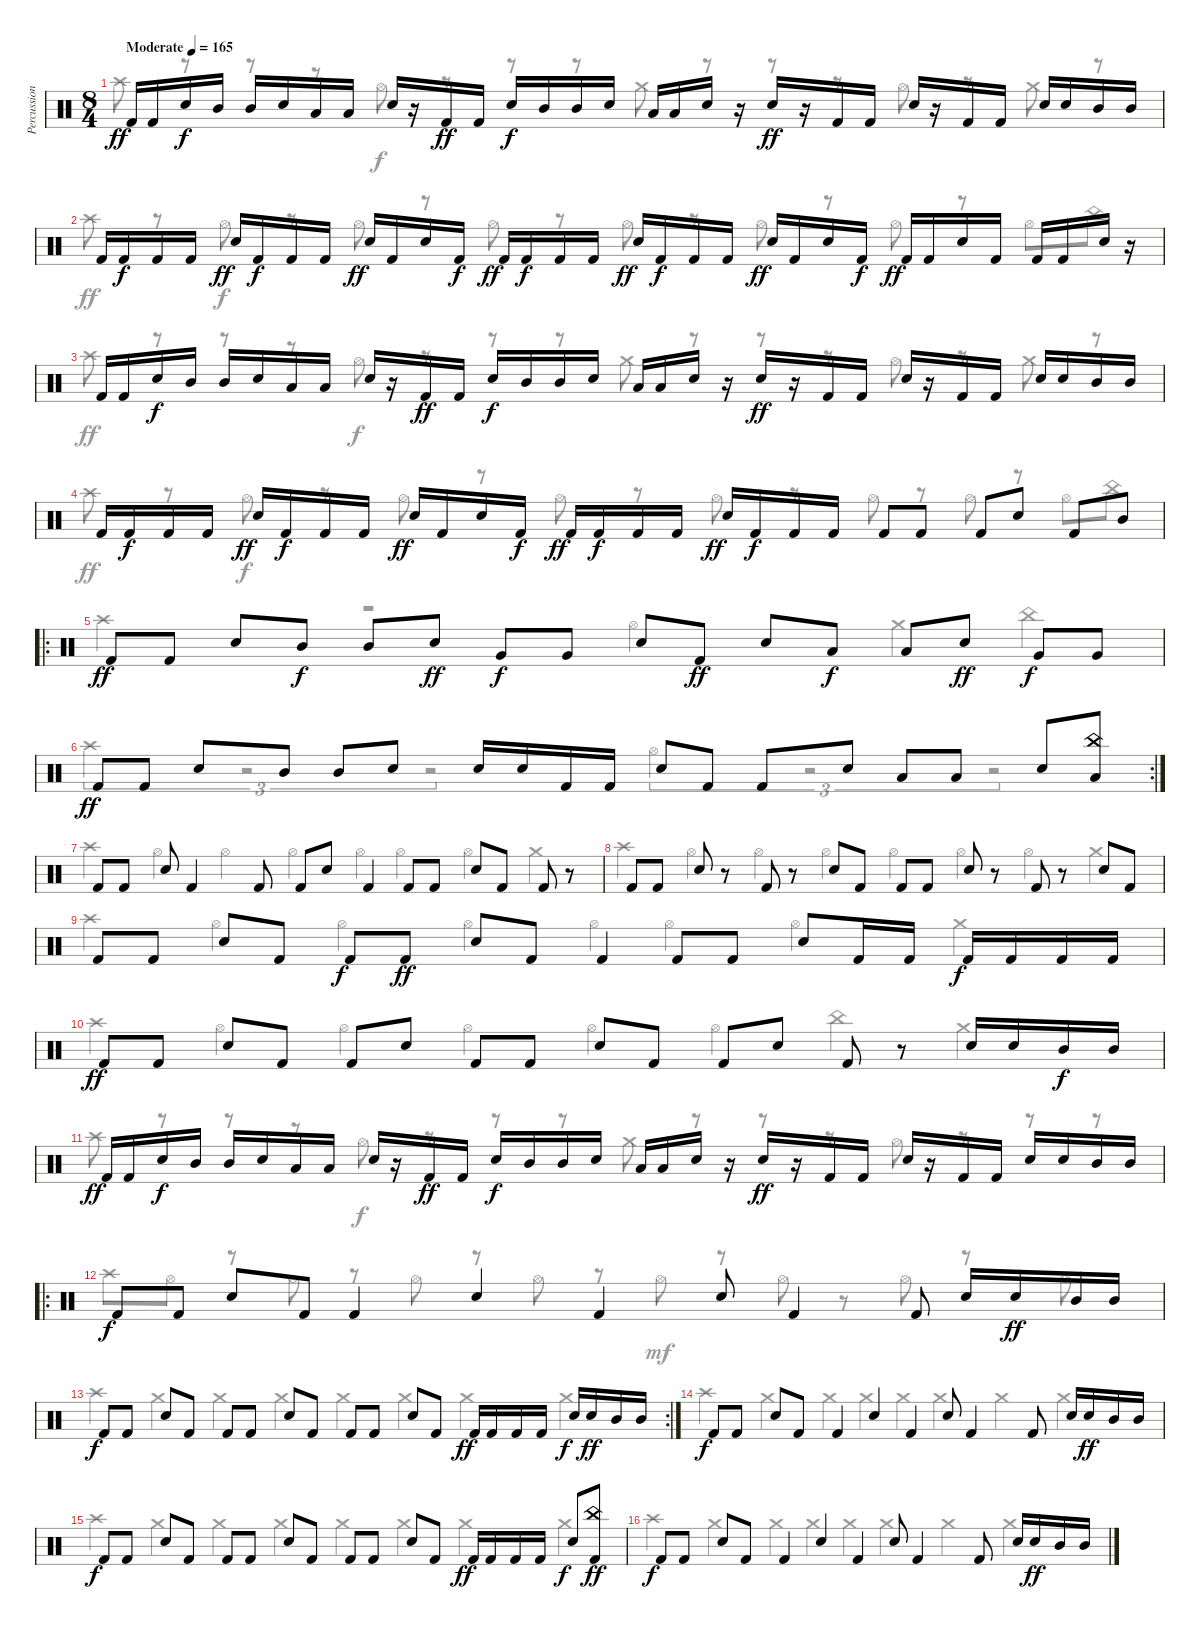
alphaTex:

\track ("Percussion" "Percussion") {instrument percussion}
\staff {score}
\articulation defaults
\voice
\ts (8 4)
\tempo (165 "Moderate")
\clef neutral
\ks c "Kick (hit) 2".16{dy ff} "Kick (hit) 2".16 "Electric Snare (hit)".16{dy f} "Mid Tom (hit)".16 "Mid Tom (hit)".16 "Electric Snare (hit)".16 "Low Tom (hit)".16 "Low Tom (hit)".16 "Electric Snare (hit)".16
r.16 "Kick (hit) 2".16{dy ff} "Kick (hit) 2".16 "Electric Snare (hit)".16{dy f} "Mid Tom (hit)".16 "Mid Tom (hit)".16 "Electric Snare (hit)".16 "Low Tom (hit)".16 "Low Tom (hit)".16 "Electric Snare (hit)".16 r.16 "Electric Snare (hit)".16{dy ff} r.16 "Kick (hit) 2".16 "Kick (hit) 2".16 "Electric Snare (hit)".16 r.16 "Kick (hit) 2".16 "Kick (hit) 2".16 "Electric Snare (hit)".16 "Electric Snare (hit)".16 "Mid Tom (hit)".16 "Mid Tom (hit)".16 |
"Kick (hit) 2".16 "Kick (hit) 2".16{dy f} "Kick (hit) 2".16 "Kick (hit) 2".16 "Electric Snare (hit)".16{dy ff} "Kick (hit) 2".16{dy f} "Kick (hit) 2".16 "Kick (hit) 2".16 "Electric Snare (hit)".16{dy ff} "Kick (hit) 2".16 "Electric Snare (hit)".16 "Kick (hit) 2".16{dy f} "Kick (hit) 2".16{dy ff} "Kick (hit) 2".16{dy f} "Kick (hit) 2".16 "Kick (hit) 2".16 "Electric Snare (hit)".16{dy ff} "Kick (hit) 2".16{dy f} "Kick (hit) 2".16 "Kick (hit) 2".16 "Electric Snare (hit)".16{dy ff} "Kick (hit) 2".16 "Electric Snare (hit)".16 "Kick (hit) 2".16{dy f} "Kick (hit) 2".16{dy ff} "Kick (hit) 2".16 "Electric Snare (hit)".16 "Kick (hit) 2".16 "Kick (hit) 2".16 "Kick (hit) 2".16 "Electric Snare (hit)".16 r.16 |
"Kick (hit) 2".16 "Kick (hit) 2".16 "Electric Snare (hit)".16{dy f} "Mid Tom (hit)".16 "Mid Tom (hit)".16 "Electric Snare (hit)".16 "Low Tom (hit)".16 "Low Tom (hit)".16 "Electric Snare (hit)".16 r.16 "Kick (hit) 2".16{dy ff} "Kick (hit) 2".16 "Electric Snare (hit)".16{dy f} "Mid Tom (hit)".16 "Mid Tom (hit)".16 "Electric Snare (hit)".16 "Low Tom (hit)".16 "Low Tom (hit)".16 "Electric Snare (hit)".16 r.16 "Electric Snare (hit)".16{dy ff} r.16 "Kick (hit) 2".16 "Kick (hit) 2".16 "Electric Snare (hit)".16 r.16 "Kick (hit) 2".16 "Kick (hit) 2".16 "Electric Snare (hit)".16 "Electric Snare (hit)".16 "Mid Tom (hit)".16 "Mid Tom (hit)".16 |
"Kick (hit) 2".16 "Kick (hit) 2".16{dy f} "Kick (hit) 2".16 "Kick (hit) 2".16 "Electric Snare (hit)".16{dy ff} "Kick (hit) 2".16{dy f} "Kick (hit) 2".16 "Kick (hit) 2".16 "Electric Snare (hit)".16{dy ff} "Kick (hit) 2".16 "Electric Snare (hit)".16 "Kick (hit) 2".16{dy f} "Kick (hit) 2".16{dy ff} "Kick (hit) 2".16{dy f} "Kick (hit) 2".16 "Kick (hit) 2".16 "Electric Snare (hit)".16{dy ff} "Kick (hit) 2".16{dy f} "Kick (hit) 2".16 "Kick (hit) 2".16 "Kick (hit) 2".8 "Kick (hit) 2".8 "Kick (hit) 2".8 "Electric Snare (hit)".8 "Kick (hit) 2".8 "Mid Tom (hit)".8 |
\ro "Kick (hit) 2".8{dy ff} "Kick (hit) 2".8 "Electric Snare (hit)".8 "Mid Tom (hit)".8{dy f} "Mid Tom (hit)".8 "Electric Snare (hit)".8{dy ff} "Very Low Tom (hit)".8{dy f} "Very Low Tom (hit)".8 "Electric Snare (hit)".8 "Kick (hit) 2".8{dy ff} "Electric Snare (hit)".8 "Low Tom (hit)".8{dy f} "Low Tom (hit)".8 "Electric Snare (hit)".8{dy ff} "Very Low Tom (hit)".8{dy f} "Very Low Tom (hit)".8
|
\rc 2 "Kick (hit) 2".8{dy ff} "Kick (hit) 2".8 "Electric Snare (hit)".8 "Mid Tom (hit)".8 "Mid Tom (hit)".8 "Electric Snare (hit)".8 "Electric Snare (hit)".16 "Electric Snare (hit)".16 "Kick (hit) 2".16 "Kick (hit) 2".16 "Electric Snare (hit)".8 "Kick (hit) 2".8 "Kick (hit) 2".8 "Electric Snare (hit)".8 "Low Floor Tom (hit)".8 "Low Floor Tom (hit)".8 "Electric Snare (hit)".8
("China (hit)" "Low Tom (hit)").8 |
"Kick (hit) 2".8 "Kick (hit) 2".8 "Electric Snare (hit)".8 "Kick (hit) 2".4 "Kick (hit) 2".8 "Kick (hit) 2".8 "Electric Snare (hit)".8 "Kick (hit) 2".4 "Kick (hit) 2".8 "Kick (hit) 2".8 "Electric Snare (hit)".8 "Kick (hit) 2".8 "Kick (hit) 2".8 r.8 |
"Kick (hit) 2".8 "Kick (hit) 2".8 "Electric Snare (hit)".8 r.8 "Kick (hit) 2".8 r.8 "Electric Snare (hit)".8 "Kick (hit) 2".8 "Kick (hit) 2".8 "Kick (hit) 2".8 "Electric Snare (hit)".8 r.8 "Kick (hit) 2".8 r.8 "Electric Snare (hit)".8 "Kick (hit) 2".8 |
"Kick (hit) 2".8 "Kick (hit) 2".8 "Electric Snare (hit)".8 "Kick (hit) 2".8 "Kick (hit) 2".8{dy f} "Kick (hit) 2".8{dy ff} "Electric Snare (hit)".8 "Kick (hit) 2".8 "Kick (hit) 2".4 "Kick (hit) 2".8 "Kick (hit) 2".8 "Electric Snare (hit)".8 "Kick (hit) 2".16 "Kick (hit) 2".16 "Kick (hit) 2".16{dy f} "Kick (hit) 2".16 "Kick (hit) 2".16 "Kick (hit) 2".16 |
"Kick (hit) 2".8{dy ff} "Kick (hit) 2".8 "Electric Snare (hit)".8 "Kick (hit) 2".8 "Kick (hit) 2".8 "Electric Snare (hit)".8 "Kick (hit) 2".8 "Kick (hit) 2".8 "Electric Snare (hit)".8 "Kick (hit) 2".8 "Kick (hit) 2".8 "Electric Snare (hit)".8 "Kick (hit) 2".8 r.8 "Electric Snare (hit)".16 "Electric Snare (hit)".16 "Mid Tom (hit)".16{dy f} "Mid Tom (hit)".16 |
"Kick (hit) 2".16{dy ff} "Kick (hit) 2".16 "Electric Snare (hit)".16{dy f} "Mid Tom (hit)".16 "Mid Tom (hit)".16 "Electric Snare (hit)".16 "Low Tom (hit)".16 "Low Tom (hit)".16 "Electric Snare (hit)".16 r.16 "Kick (hit) 2".16{dy ff} "Kick (hit) 2".16 "Electric Snare (hit)".16{dy f} "Mid Tom (hit)".16 "Mid Tom (hit)".16 "Electric Snare (hit)".16 "Low Tom (hit)".16 "Low Tom (hit)".16 "Electric Snare (hit)".16 r.16 "Electric Snare (hit)".16{dy ff} r.16 "Kick (hit) 2".16 "Kick (hit) 2".16 "Electric Snare (hit)".16 r.16 "Kick (hit) 2".16 "Kick (hit) 2".16 "Electric Snare (hit)".16 "Electric Snare (hit)".16 "Mid Tom (hit)".16 "Mid Tom (hit)".16 |
\ro "Kick (hit) 2".8{dy f} "Kick (hit) 2".8 "Electric Snare (hit)".8 "Kick (hit) 2".8 "Kick (hit) 2".4 "Electric Snare (hit)".4 "Kick (hit) 2".4 "Electric Snare (hit)".8 "Kick (hit) 2".4 "Kick (hit) 2".8 "Electric Snare (hit)".16 "Electric Snare (hit)".16{dy ff} "Mid Tom (hit)".16 "Mid Tom (hit)".16
|
\rc 2 "Kick (hit) 2".8{dy f} "Kick (hit) 2".8 "Electric Snare (hit)".8 "Kick (hit) 2".8 "Kick (hit) 2".8 "Kick (hit) 2".8 "Electric Snare (hit)".8 "Kick (hit) 2".8 "Kick (hit) 2".8 "Kick (hit) 2".8 "Electric Snare (hit)".8 "Kick (hit) 2".8 "Kick (hit) 2".16{dy ff} "Kick (hit) 2".16 "Kick (hit) 2".16 "Kick (hit) 2".16 "Electric Snare (hit)".16{dy f} "Electric Snare (hit)".16{dy ff} "Mid Tom (hit)".16 "Mid Tom (hit)".16
|
"Kick (hit) 2".8{dy f} "Kick (hit) 2".8 "Electric Snare (hit)".8 "Kick (hit) 2".8 "Kick (hit) 2".4 "Electric Snare (hit)".4 "Kick (hit) 2".4 "Electric Snare (hit)".8 "Kick (hit) 2".4 "Kick (hit) 2".8 "Electric Snare (hit)".16 "Electric Snare (hit)".16{dy ff} "Mid Tom (hit)".16 "Mid Tom (hit)".16 |
"Kick (hit) 2".8{dy f} "Kick (hit) 2".8 "Electric Snare (hit)".8 "Kick (hit) 2".8 "Kick (hit) 2".8 "Kick (hit) 2".8 "Electric Snare (hit)".8 "Kick (hit) 2".8 "Kick (hit) 2".8 "Kick (hit) 2".8 "Electric Snare (hit)".8 "Kick (hit) 2".8 "Kick (hit) 2".16{dy ff} "Kick (hit) 2".16 "Kick (hit) 2".16 "Kick (hit) 2".16 "Electric Snare (hit)".8{dy f} ("China (hit)" "Kick (hit) 2").8{dy ff} |
"Kick (hit) 2".8{dy f} "Kick (hit) 2".8 "Electric Snare (hit)".8 "Kick (hit) 2".8 "Kick (hit) 2".4 "Electric Snare (hit)".4 "Kick (hit) 2".4 "Electric Snare (hit)".8 "Kick (hit) 2".4 "Kick (hit) 2".8 "Electric Snare (hit)".16 "Electric Snare (hit)".16{dy ff} "Mid Tom (hit)".16 "Mid Tom (hit)".16
\voice
\clef neutral
\ottava regular
\simile none
\ks c "Crash high (hit)".8{dy ff}
r.8 r.8 r.8 "Hi-Hat (open)".8{dy f} r.8 r.8 r.8 "Crash medium (hit)".8 r.8 r.8 r.8 "Hi-Hat (open)".8 r.8 "Crash medium (hit)".8 r.8 |
"Crash high (hit)".8{dy ff} r.8 "Hi-Hat (open)".8{dy f} r.8 "Hi-Hat (open)".8 r.8 "Hi-Hat (open)".8 r.8 "Hi-Hat (open)".8 r.8 "Hi-Hat (open)".8 r.8 "Hi-Hat (open)".8 r.8 "Hi-Hat (open)".8 "China (hit)".8 |
"Crash high (hit)".8{dy ff} r.8 r.8 r.8 "Hi-Hat (open)".8{dy f} r.8 r.8 r.8 "Crash medium (hit)".8 r.8 r.8 r.8 "Hi-Hat (open)".8 r.8 "Crash medium (hit)".8 r.8 |
"Crash high (hit)".8{dy ff} r.8 "Hi-Hat (open)".8{dy f} r.8 "Hi-Hat (open)".8 r.8 "Hi-Hat (open)".8 r.8 "Hi-Hat (open)".8 r.8 "Hi-Hat (open)".8 r.8 "Hi-Hat (open)".8 r.8 "Hi-Hat (open)".8 "China (hit)".8 |
"Crash high (hit)".2{dy ff} r.2 "Hi-Hat (open)".2 "Crash medium (hit)".4 "China (hit)".4 |
"Crash high (hit)".2{tu (3 2)} r.2{tu (3 2)} r.2{tu (3 2)} "Hi-Hat (open)".2{tu (3 2)} r.2{tu (3 2)} r.2{tu (3 2)} |
"Crash high (hit)".4 "Hi-Hat (open)".4 "Hi-Hat (open)".4 "Hi-Hat (open)".4 "Hi-Hat (open)".4 "Hi-Hat (open)".4 "Hi-Hat (open)".4 "Crash medium (hit)".4 |
"Crash high (hit)".4 "Hi-Hat (open)".4 "Hi-Hat (open)".4 "Hi-Hat (open)".4 "Hi-Hat (open)".4 "Hi-Hat (open)".4 "Hi-Hat (open)".4 "Crash medium (hit)".4 |
"Crash high (hit)".4 "Hi-Hat (open)".4 "Hi-Hat (open)".4 "Hi-Hat (open)".4 "Hi-Hat (open)".4 "Hi-Hat (open)".4 "Hi-Hat (open)".4 "Crash medium (hit)".4 |
"Crash high (hit)".4 "Hi-Hat (open)".4 "Hi-Hat (open)".4 "Hi-Hat (open)".4 "Hi-Hat (open)".4 "Hi-Hat (open)".4 "China (hit)".4 "Crash medium (hit)".4 |
"Crash high (hit)".8 r.8 r.8 r.8 "Hi-Hat (open)".8{dy f} r.8 r.8 r.8 "Crash medium (hit)".8 r.8 r.8 r.8 "Hi-Hat (open)".8 r.8 r.8 r.8 |
"Crash high (hit)".8 "Hi-Hat (open)".8 r.8 "Hi-Hat (open)".8 r.8 "Hi-Hat (open)".8 r.8 "Hi-Hat (open)".8 r.8 "Hi-Hat (open)".8{dy mf} r.8 "Hi-Hat (open)".8 r.8 "Hi-Hat (open)".8 r.8 "Hi-Hat (open)".8 |
"Crash high (hit)".4{dy f} "Crash medium (hit)".4 "Crash medium (hit)".4 "Crash medium (hit)".4 "Crash medium (hit)".4 "Crash medium (hit)".4 "Crash medium (hit)".4 "Crash medium (hit)".4 |
"Crash high (hit)".4 "Crash medium (hit)".4 "Crash medium (hit)".4 "Crash medium (hit)".4 "Crash medium (hit)".4 "Crash medium (hit)".4 "Crash medium (hit)".4 "Crash medium (hit)".4 |
"Crash high (hit)".4 "Crash medium (hit)".4 "Crash medium (hit)".4 "Crash medium (hit)".4 "Crash medium (hit)".4 "Crash medium (hit)".4 "Crash medium (hit)".4 "Crash medium (hit)".4 |
"Crash high (hit)".4 "Crash medium (hit)".4 "Crash medium (hit)".4 "Crash medium (hit)".4 "Crash medium (hit)".4 "Crash medium (hit)".4 "Crash medium (hit)".4 "Crash medium (hit)".4
